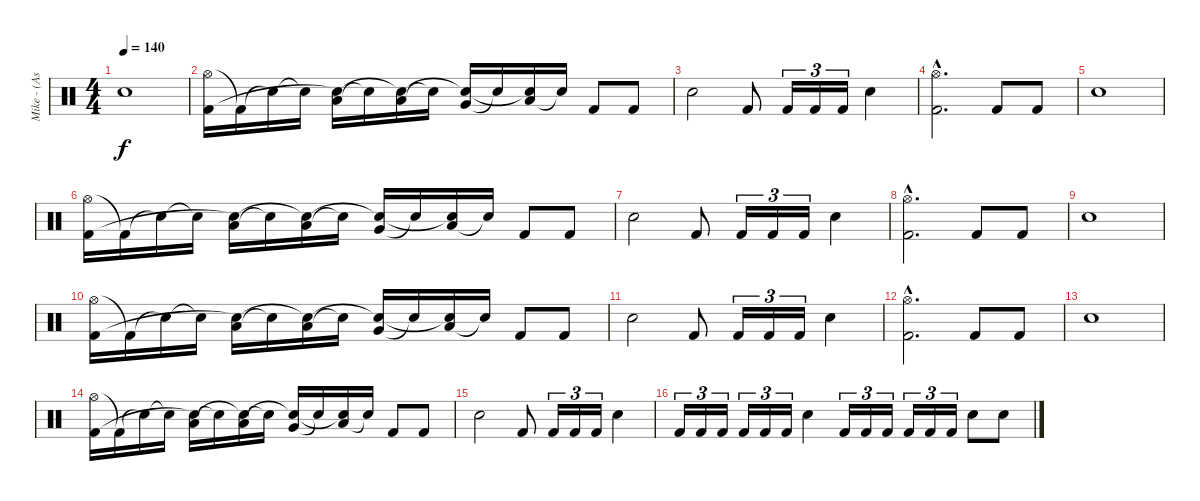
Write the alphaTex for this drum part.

\track ("Mike - (Assault and Battery)" "Mike - (As") {instrument percussion}
\staff {score}
\articulation defaults
\ts (4 4)
\tempo 140
\clef neutral
\ks c "Snare (hit) 2".1{dy f}
|
("Hi-Hat (open)" "Kick (hit) 2").16 "Kick (hit) 2"{t}.16 "Snare (hit)"{t}.16 "Snare (hit)"{t}.16 ("Low Tom (hit)" "Snare (hit)"{t}).16 "Snare (hit)"{t}.16 ("Low Tom (hit)" "Snare (hit)"{t}).16 "Snare (hit)"{t}.16 ("Very Low Tom (hit)" "Snare (hit)"{t}).16 "Snare (hit)"{t}.16 ("Low Floor Tom (hit)" "Snare (hit)"{t}).16 "Snare (hit)"{t}.16 "Kick (hit) 2".8 "Kick (hit) 2".8 |
"Snare (hit) 2".2 "Kick (hit) 2".8 "Kick (hit) 2".16{tu (3 2)} "Kick (hit) 2".16{tu (3 2)} "Kick (hit) 2".16{tu (3 2)} "Snare (hit) 2".4 |
("Hi-Hat (open)"{hac} "Kick (hit) 2"{hac}).2{d} "Kick (hit) 2".8 "Kick (hit) 2".8 |
"Snare (hit) 2".1 |
("Hi-Hat (open)" "Kick (hit) 2").16 "Kick (hit) 2"{t}.16 "Snare (hit)"{t}.16 "Snare (hit)"{t}.16 ("Low Tom (hit)" "Snare (hit)"{t}).16 "Snare (hit)"{t}.16 ("Low Tom (hit)" "Snare (hit)"{t}).16 "Snare (hit)"{t}.16 ("Very Low Tom (hit)" "Snare (hit)"{t}).16 "Snare (hit)"{t}.16 ("Low Floor Tom (hit)" "Snare (hit)"{t}).16 "Snare (hit)"{t}.16 "Kick (hit) 2".8 "Kick (hit) 2".8 |
"Snare (hit) 2".2 "Kick (hit) 2".8 "Kick (hit) 2".16{tu (3 2)} "Kick (hit) 2".16{tu (3 2)} "Kick (hit) 2".16{tu (3 2)} "Snare (hit) 2".4 |
("Hi-Hat (open)"{hac} "Kick (hit) 2"{hac}).2{d} "Kick (hit) 2".8 "Kick (hit) 2".8 |
"Snare (hit) 2".1 |
("Hi-Hat (open)" "Kick (hit) 2").16 "Kick (hit) 2"{t}.16 "Snare (hit)"{t}.16 "Snare (hit)"{t}.16 ("Low Tom (hit)" "Snare (hit)"{t}).16 "Snare (hit)"{t}.16 ("Low Tom (hit)" "Snare (hit)"{t}).16 "Snare (hit)"{t}.16 ("Very Low Tom (hit)" "Snare (hit)"{t}).16 "Snare (hit)"{t}.16 ("Low Floor Tom (hit)" "Snare (hit)"{t}).16 "Snare (hit)"{t}.16 "Kick (hit) 2".8 "Kick (hit) 2".8 |
"Snare (hit) 2".2 "Kick (hit) 2".8 "Kick (hit) 2".16{tu (3 2)} "Kick (hit) 2".16{tu (3 2)} "Kick (hit) 2".16{tu (3 2)} "Snare (hit) 2".4 |
("Hi-Hat (open)"{hac} "Kick (hit) 2"{hac}).2{d} "Kick (hit) 2".8 "Kick (hit) 2".8 |
"Snare (hit) 2".1 |
("Hi-Hat (open)" "Kick (hit) 2").16 "Kick (hit) 2"{t}.16 "Snare (hit)"{t}.16 "Snare (hit)"{t}.16 ("Low Tom (hit)" "Snare (hit)"{t}).16 "Snare (hit)"{t}.16 ("Low Tom (hit)" "Snare (hit)"{t}).16 "Snare (hit)"{t}.16 ("Very Low Tom (hit)" "Snare (hit)"{t}).16 "Snare (hit)"{t}.16 ("Low Floor Tom (hit)" "Snare (hit)"{t}).16 "Snare (hit)"{t}.16 "Kick (hit) 2".8 "Kick (hit) 2".8 |
"Snare (hit) 2".2 "Kick (hit) 2".8 "Kick (hit) 2".16{tu (3 2)} "Kick (hit) 2".16{tu (3 2)} "Kick (hit) 2".16{tu (3 2)} "Snare (hit) 2".4 |
"Kick (hit) 2".16{tu (3 2)} "Kick (hit) 2".16{tu (3 2)} "Kick (hit) 2".16{tu (3 2)} "Kick (hit) 2".16{tu (3 2)} "Kick (hit) 2".16{tu (3 2)} "Kick (hit) 2".16{tu (3 2)} "Snare (hit) 2".4 "Kick (hit) 2".16{tu (3 2)} "Kick (hit) 2".16{tu (3 2)} "Kick (hit) 2".16{tu (3 2)} "Kick (hit) 2".16{tu (3 2)} "Kick (hit) 2".16{tu (3 2)} "Kick (hit) 2".16{tu (3 2)} "Snare (hit) 2".8 "Snare (hit) 2".8
